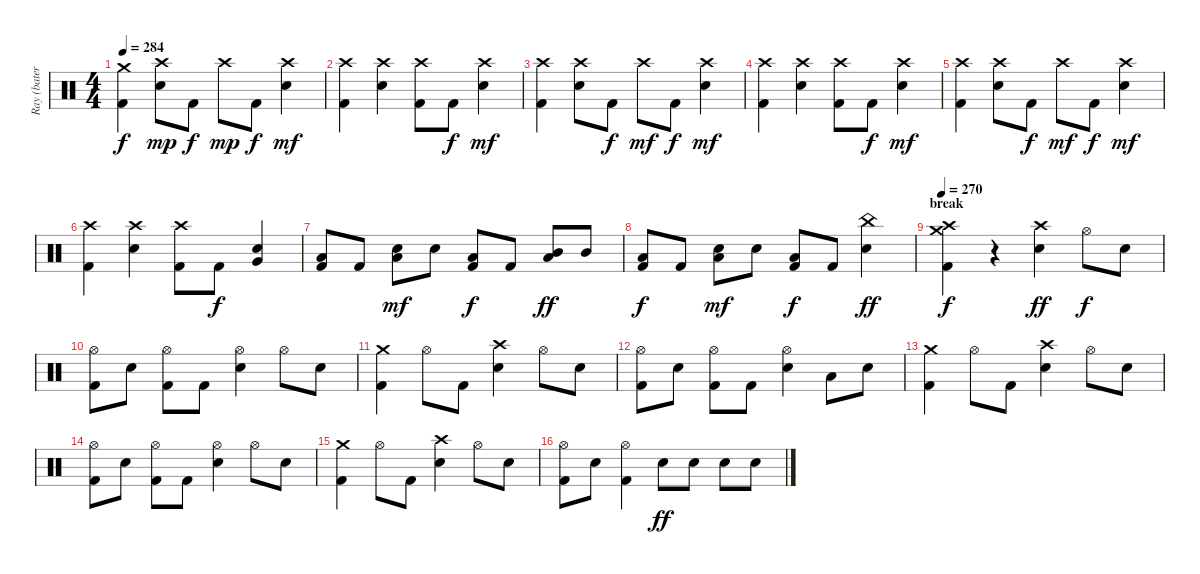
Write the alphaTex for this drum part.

\track ("Ray (batería)" "Ray (bater") {instrument percussion}
\staff {score}
\articulation defaults
\ts (4 4)
\tempo 284
\clef neutral
\ks c
("Crash medium (hit)" "Kick (hit) 2").4{dy f} ("Crash high (hit)" "Snare (hit) 2").8{dy mp} "Kick (hit) 2".8{dy f} "Crash high (hit)".8{dy mp} "Kick (hit) 2".8{dy f} ("Crash high (hit)" "Snare (hit) 2").4{dy mf} |
("Crash high (hit)" "Kick (hit) 2").4 ("Crash high (hit)" "Snare (hit) 2").4 ("Crash high (hit)" "Kick (hit) 2").8 "Kick (hit) 2".8{dy f} ("Crash high (hit)" "Snare (hit) 2").4{dy mf} |
("Crash high (hit)" "Kick (hit) 2").4 ("Crash high (hit)" "Snare (hit) 2").8 "Kick (hit) 2".8{dy f} "Crash high (hit)".8{dy mf} "Kick (hit) 2".8{dy f} ("Crash high (hit)" "Snare (hit) 2").4{dy mf} |
("Crash high (hit)" "Kick (hit) 2").4 ("Crash high (hit)" "Snare (hit) 2").4 ("Crash high (hit)" "Kick (hit) 2").8 "Kick (hit) 2".8{dy f} ("Crash high (hit)" "Snare (hit) 2").4{dy mf} |
("Crash high (hit)" "Kick (hit) 2").4 ("Crash high (hit)" "Snare (hit) 2").8 "Kick (hit) 2".8{dy f} "Crash high (hit)".8{dy mf} "Kick (hit) 2".8{dy f} ("Crash high (hit)" "Snare (hit) 2").4{dy mf} |
("Crash high (hit)" "Kick (hit) 2").4 ("Crash high (hit)" "Snare (hit) 2").4 ("Crash high (hit)" "Kick (hit) 2").8 "Kick (hit) 2".8{dy f} ("Snare (hit) 2" "Very Low Tom (hit)").4 |
("Low Tom (hit)" "Kick (hit) 2").8 "Kick (hit) 2".8 ("Snare (hit) 2" "Low Tom (hit)").8{dy mf} "Snare (hit) 2".8 ("Low Tom (hit)" "Kick (hit) 2").8{dy f} "Kick (hit) 2".8 ("Mid Tom (hit)" "Low Tom (hit)").8{dy ff} "Mid Tom (hit)".8 |
("Low Tom (hit)" "Kick (hit) 2").8{dy f} "Kick (hit) 2".8 ("Snare (hit) 2" "Low Tom (hit)").8{dy mf} "Snare (hit) 2".8 ("Low Tom (hit)" "Kick (hit) 2").8{dy f} "Kick (hit) 2".8 ("China (hit)" "Snare (hit) 2").4{dy ff} |
\section ("" "break")
\tempo 270
("Crash medium (hit)" "Crash high (hit)" "Kick (hit) 2").4{dy f} r.4{volume 0} ("Crash high (hit)" "Snare (hit) 2").4{dy ff volume 15} "Hi-Hat (open)".8{dy f} "Snare (hit) 2".8 |
("Hi-Hat (open)" "Kick (hit) 2").8 "Snare (hit) 2".8 ("Hi-Hat (open)" "Kick (hit) 2").8 "Kick (hit) 2".8 ("Hi-Hat (open)" "Snare (hit) 2").4 "Hi-Hat (open)".8 "Snare (hit) 2".8 |
("Crash medium (hit)" "Kick (hit) 2").4 "Hi-Hat (open)".8 "Kick (hit) 2".8 ("Crash high (hit)" "Snare (hit) 2").4 "Hi-Hat (open)".8 "Snare (hit) 2".8 |
("Hi-Hat (open)" "Kick (hit) 2").8 "Snare (hit) 2".8 ("Hi-Hat (open)" "Kick (hit) 2").8 "Kick (hit) 2".8 ("Hi-Hat (open)" "Snare (hit) 2").4 "Low Tom (hit)".8 "Snare (hit) 2".8 |
("Crash medium (hit)" "Kick (hit) 2").4 "Hi-Hat (open)".8 "Kick (hit) 2".8 ("Crash high (hit)" "Snare (hit) 2").4 "Hi-Hat (open)".8 "Snare (hit) 2".8 |
("Hi-Hat (open)" "Kick (hit) 2").8 "Snare (hit) 2".8 ("Hi-Hat (open)" "Kick (hit) 2").8 "Kick (hit) 2".8 ("Hi-Hat (open)" "Snare (hit) 2").4 "Hi-Hat (open)".8 "Snare (hit) 2".8 |
("Crash medium (hit)" "Kick (hit) 2").4 "Hi-Hat (open)".8 "Kick (hit) 2".8 ("Crash high (hit)" "Snare (hit) 2").4 "Hi-Hat (open)".8 "Snare (hit) 2".8 |
("Hi-Hat (open)" "Kick (hit) 2").8 "Snare (hit) 2".8 ("Hi-Hat (open)" "Kick (hit) 2").4 "Snare (hit) 2".8{dy ff} "Snare (hit) 2".8 "Snare (hit) 2".8 "Snare (hit) 2".8
